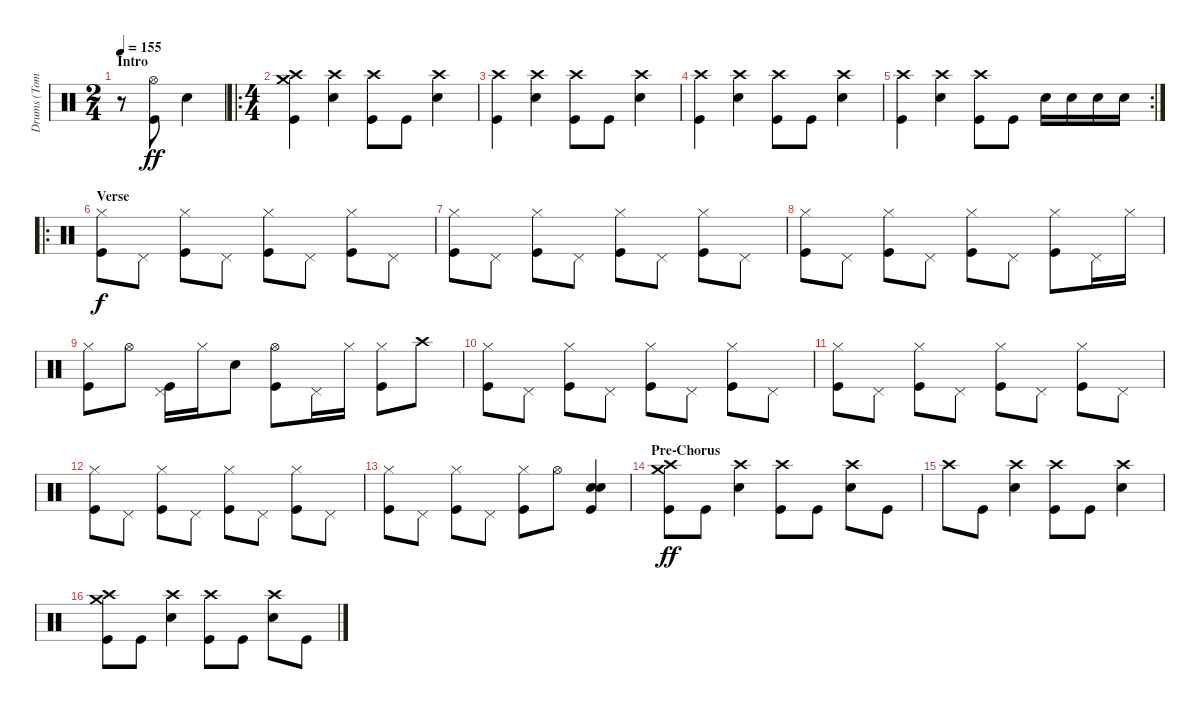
\track ("Drums (Tommy Decker)" "Drums (Tom") {instrument percussion}
\staff {score}
\articulation defaults
\ts (2 4)
\section ("" "Intro")
\tempo 155
\clef neutral
\ks c
r.8{dy ff} ("Hi-Hat (open)" "Kick (hit)").8 "Snare (hit) 2".4 |
\ro
\ts (4 4)
("Crash high (hit)" "Crash medium (hit)" "Kick (hit)").4 ("Crash high (hit)" "Snare (hit) 2").4 ("Crash high (hit)" "Kick (hit)").8 "Kick (hit)".8 ("Crash high (hit)" "Snare (hit) 2").4 |
("Crash high (hit)" "Kick (hit)").4 ("Crash high (hit)" "Snare (hit) 2").4 ("Crash high (hit)" "Kick (hit)").8 "Kick (hit)".8 ("Crash high (hit)" "Snare (hit) 2").4 |
("Crash high (hit)" "Kick (hit)").4 ("Crash high (hit)" "Snare (hit) 2").4 ("Crash high (hit)" "Kick (hit)").8 "Kick (hit)".8 ("Crash high (hit)" "Snare (hit) 2").4 |
\rc 2
("Crash high (hit)" "Kick (hit)").4 ("Crash high (hit)" "Snare (hit) 2").4 ("Crash high (hit)" "Kick (hit)").8 "Kick (hit)".8 "Snare (hit) 2".16 "Snare (hit) 2".16 "Snare (hit) 2".16 "Snare (hit) 2".16 |
\ro
\section ("" "Verse")
("Hi-Hat (closed)" "Kick (hit)").8{dy f} "Pedal Hi-Hat (hit)".8 ("Hi-Hat (closed)" "Kick (hit)").8 "Pedal Hi-Hat (hit)".8 ("Hi-Hat (closed)" "Kick (hit)").8 "Pedal Hi-Hat (hit)".8 ("Hi-Hat (closed)" "Kick (hit)").8 "Pedal Hi-Hat (hit)".8 |
("Hi-Hat (closed)" "Kick (hit)").8 "Pedal Hi-Hat (hit)".8 ("Hi-Hat (closed)" "Kick (hit)").8 "Pedal Hi-Hat (hit)".8 ("Hi-Hat (closed)" "Kick (hit)").8 "Pedal Hi-Hat (hit)".8 ("Hi-Hat (closed)" "Kick (hit)").8 "Pedal Hi-Hat (hit)".8 |
("Hi-Hat (closed)" "Kick (hit)").8 "Pedal Hi-Hat (hit)".8 ("Hi-Hat (closed)" "Kick (hit)").8 "Pedal Hi-Hat (hit)".8 ("Hi-Hat (closed)" "Kick (hit)").8 "Pedal Hi-Hat (hit)".8 ("Hi-Hat (closed)" "Kick (hit)").8 "Pedal Hi-Hat (hit)".16 "Hi-Hat (closed)".16 |
("Hi-Hat (closed)" "Kick (hit)").8 "Hi-Hat (open)".8 ("Pedal Hi-Hat (hit)" "Kick (hit)").16 "Hi-Hat (closed)".16 "Snare (hit)".8 ("Hi-Hat (open)" "Kick (hit)").8 "Pedal Hi-Hat (hit)".16 "Hi-Hat (closed)".16 ("Hi-Hat (closed)" "Kick (hit)").8 "Crash high (hit)".8 |
("Hi-Hat (closed)" "Kick (hit)").8 "Pedal Hi-Hat (hit)".8 ("Hi-Hat (closed)" "Kick (hit)").8 "Pedal Hi-Hat (hit)".8 ("Hi-Hat (closed)" "Kick (hit)").8 "Pedal Hi-Hat (hit)".8 ("Hi-Hat (closed)" "Kick (hit)").8 "Pedal Hi-Hat (hit)".8 |
("Hi-Hat (closed)" "Kick (hit)").8 "Pedal Hi-Hat (hit)".8 ("Hi-Hat (closed)" "Kick (hit)").8 "Pedal Hi-Hat (hit)".8 ("Hi-Hat (closed)" "Kick (hit)").8 "Pedal Hi-Hat (hit)".8 ("Hi-Hat (closed)" "Kick (hit)").8 "Pedal Hi-Hat (hit)".8 |
("Hi-Hat (closed)" "Kick (hit)").8 "Pedal Hi-Hat (hit)".8 ("Hi-Hat (closed)" "Kick (hit)").8 "Pedal Hi-Hat (hit)".8 ("Hi-Hat (closed)" "Kick (hit)").8 "Pedal Hi-Hat (hit)".8 ("Hi-Hat (closed)" "Kick (hit)").8 "Pedal Hi-Hat (hit)".8 |
("Hi-Hat (closed)" "Kick (hit)").8 "Pedal Hi-Hat (hit)".8 ("Hi-Hat (closed)" "Kick (hit)").8 "Pedal Hi-Hat (hit)".8 ("Hi-Hat (closed)" "Kick (hit)").8 "Hi-Hat (open)".8 ("Snare (hit) 2" "Snare (hit) 2" "Kick (hit)").4 |
\section ("" "Pre-Chorus")
("Crash high (hit)" "Crash medium (hit)" "Kick (hit)").8{dy ff} "Kick (hit)".8 ("Crash high (hit)" "Snare (hit) 2").4 ("Crash high (hit)" "Kick (hit)").8 "Kick (hit)".8 ("Crash high (hit)" "Snare (hit) 2").8 "Kick (hit)".8 |
"Crash high (hit)".8 "Kick (hit)".8 ("Crash high (hit)" "Snare (hit) 2").4 ("Crash high (hit)" "Kick (hit)").8 "Kick (hit)".8 ("Crash high (hit)" "Snare (hit) 2").4 |
("Crash high (hit)" "Crash medium (hit)" "Kick (hit)").8 "Kick (hit)".8 ("Crash high (hit)" "Snare (hit) 2").4 ("Crash high (hit)" "Kick (hit)").8 "Kick (hit)".8 ("Crash high (hit)" "Snare (hit) 2").8 "Kick (hit)".8
